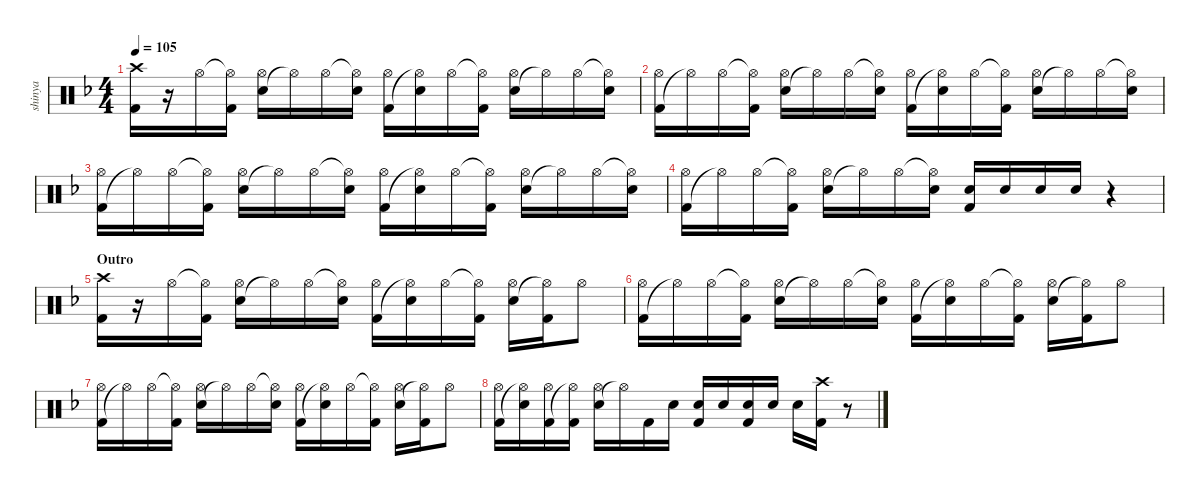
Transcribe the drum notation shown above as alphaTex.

\defaultSystemsLayout 4
\hideDynamics
\bracketExtendMode nobrackets
\otherSystemsTrackNameOrientation horizontal
\track ("Shinya" "shinya") {defaultSystemsLayout 4 instrument percussion}
\staff {score}
\articulation defaults
\ts (4 4)
\tempo 105
\clef neutral
\scale
1.06316
\ks dminor
("Kick (hit) 2"{acc forcenatural} "Crash high (hit)"{acc #}).16{dy fff} r.16 "Hi-Hat (open)"{acc #}.16 ("Hi-Hat (open)"{t acc #} "Kick (hit) 2"{acc forcenatural}).16 ("Snare (hit) 2"{acc forcenatural} "Hi-Hat (open)"{acc #}).16 "Hi-Hat (open)"{t acc #}.16 "Hi-Hat (open)"{acc #}.16 ("Hi-Hat (open)"{t acc #} "Snare (hit) 2"{acc forcenatural}).16 ("Kick (hit) 2"{acc forcenatural} "Hi-Hat (open)"{acc #}).16 ("Hi-Hat (open)"{t acc #} "Snare (hit) 2"{acc forcenatural}).16 "Hi-Hat (open)"{acc #}.16 ("Hi-Hat (open)"{t acc #} "Kick (hit) 2"{acc forcenatural}).16 ("Snare (hit) 2"{acc forcenatural} "Hi-Hat (open)"{acc #}).16 "Hi-Hat (open)"{t acc #}.16 "Hi-Hat (open)"{acc #}.16 ("Hi-Hat (open)"{t acc #} "Snare (hit) 2"{acc forcenatural}).16 |
\scale
0.973053 ("Kick (hit) 2"{acc forcenatural} "Hi-Hat (open)"{acc #}).16 "Hi-Hat (open)"{t acc #}.16 "Hi-Hat (open)"{acc #}.16 ("Hi-Hat (open)"{t acc #} "Kick (hit) 2"{acc forcenatural}).16 ("Snare (hit) 2"{acc forcenatural} "Hi-Hat (open)"{acc #}).16 "Hi-Hat (open)"{t acc #}.16 "Hi-Hat (open)"{acc #}.16 ("Hi-Hat (open)"{t acc #} "Snare (hit) 2"{acc forcenatural}).16 ("Kick (hit) 2"{acc forcenatural} "Hi-Hat (open)"{acc #}).16 ("Hi-Hat (open)"{t acc #} "Snare (hit) 2"{acc forcenatural}).16 "Hi-Hat (open)"{acc #}.16 ("Hi-Hat (open)"{t acc #} "Kick (hit) 2"{acc forcenatural}).16 ("Snare (hit) 2"{acc forcenatural} "Hi-Hat (open)"{acc #}).16 "Hi-Hat (open)"{t acc #}.16 "Hi-Hat (open)"{acc #}.16 ("Hi-Hat (open)"{t acc #} "Snare (hit) 2"{acc forcenatural}).16 |
\scale
0.973053 ("Kick (hit) 2"{acc forcenatural} "Hi-Hat (open)"{acc #}).16 "Hi-Hat (open)"{t acc #}.16 "Hi-Hat (open)"{acc #}.16 ("Hi-Hat (open)"{t acc #} "Kick (hit) 2"{acc forcenatural}).16 ("Snare (hit) 2"{acc forcenatural} "Hi-Hat (open)"{acc #}).16 "Hi-Hat (open)"{t acc #}.16 "Hi-Hat (open)"{acc #}.16 ("Hi-Hat (open)"{t acc #} "Snare (hit) 2"{acc forcenatural}).16 ("Kick (hit) 2"{acc forcenatural} "Hi-Hat (open)"{acc #}).16 ("Hi-Hat (open)"{t acc #} "Snare (hit) 2"{acc forcenatural}).16 "Hi-Hat (open)"{acc #}.16 ("Hi-Hat (open)"{t acc #} "Kick (hit) 2"{acc forcenatural}).16 ("Snare (hit) 2"{acc forcenatural} "Hi-Hat (open)"{acc #}).16 "Hi-Hat (open)"{t acc #}.16 "Hi-Hat (open)"{acc #}.16 ("Hi-Hat (open)"{t acc #} "Snare (hit) 2"{acc forcenatural}).16 |
\scale
0.990737 ("Kick (hit) 2"{acc forcenatural} "Hi-Hat (open)"{acc #}).16 "Hi-Hat (open)"{t acc #}.16 "Hi-Hat (open)"{acc #}.16 ("Hi-Hat (open)"{t acc #} "Kick (hit) 2"{acc forcenatural}).16 ("Snare (hit) 2"{acc forcenatural} "Hi-Hat (open)"{acc #}).16 "Hi-Hat (open)"{t acc #}.16 "Hi-Hat (open)"{acc #}.16 ("Hi-Hat (open)"{t acc #} "Snare (hit) 2"{acc forcenatural}).16 ("Kick (hit) 2"{acc forcenatural} "Snare (hit) 2"{acc forcenatural}).16 "Snare (hit) 2"{acc forcenatural}.16 "Snare (hit) 2"{acc forcenatural}.16 "Snare (hit) 2"{acc forcenatural}.16 r.4 |
\section ("" "Outro")
\scale
1.06047 ("Kick (hit) 2"{acc forcenatural} "Crash high (hit)"{acc #}).16 r.16 "Hi-Hat (open)"{acc #}.16 ("Hi-Hat (open)"{t acc #} "Kick (hit) 2"{acc forcenatural}).16 ("Snare (hit) 2"{acc forcenatural} "Hi-Hat (open)"{acc #}).16 "Hi-Hat (open)"{t acc #}.16 "Hi-Hat (open)"{acc #}.16 ("Hi-Hat (open)"{t acc #} "Snare (hit) 2"{acc forcenatural}).16 ("Kick (hit) 2"{acc forcenatural} "Hi-Hat (open)"{acc #}).16 ("Hi-Hat (open)"{t acc #} "Snare (hit) 2"{acc forcenatural}).16 "Hi-Hat (open)"{acc #}.16 ("Hi-Hat (open)"{t acc #} "Kick (hit) 2"{acc forcenatural}).16 ("Snare (hit) 2"{acc forcenatural} "Hi-Hat (open)"{acc #}).16 ("Hi-Hat (open)"{t acc #} "Kick (hit) 2"{acc forcenatural}).16 "Hi-Hat (open)"{acc #}.8 |
\scale
0.970369 ("Kick (hit) 2"{acc forcenatural} "Hi-Hat (open)"{acc #}).16 "Hi-Hat (open)"{t acc #}.16 "Hi-Hat (open)"{acc #}.16 ("Hi-Hat (open)"{t acc #} "Kick (hit) 2"{acc forcenatural}).16 ("Snare (hit) 2"{acc forcenatural} "Hi-Hat (open)"{acc #}).16 "Hi-Hat (open)"{t acc #}.16 "Hi-Hat (open)"{acc #}.16 ("Hi-Hat (open)"{t acc #} "Snare (hit) 2"{acc forcenatural}).16 ("Kick (hit) 2"{acc forcenatural} "Hi-Hat (open)"{acc #}).16 ("Hi-Hat (open)"{t acc #} "Snare (hit) 2"{acc forcenatural}).16 "Hi-Hat (open)"{acc #}.16 ("Hi-Hat (open)"{t acc #} "Kick (hit) 2"{acc forcenatural}).16 ("Snare (hit) 2"{acc forcenatural} "Hi-Hat (open)"{acc #}).16 ("Hi-Hat (open)"{t acc #} "Kick (hit) 2"{acc forcenatural}).16 "Hi-Hat (open)"{acc #}.8 |
\scale
0.970369 ("Kick (hit) 2"{acc forcenatural} "Hi-Hat (open)"{acc #}).16 "Hi-Hat (open)"{t acc #}.16 "Hi-Hat (open)"{acc #}.16 ("Hi-Hat (open)"{t acc #} "Kick (hit) 2"{acc forcenatural}).16 ("Snare (hit) 2"{acc forcenatural} "Hi-Hat (open)"{acc #}).16 "Hi-Hat (open)"{t acc #}.16 "Hi-Hat (open)"{acc #}.16 ("Hi-Hat (open)"{t acc #} "Snare (hit) 2"{acc forcenatural}).16 ("Kick (hit) 2"{acc forcenatural} "Hi-Hat (open)"{acc #}).16 ("Hi-Hat (open)"{t acc #} "Snare (hit) 2"{acc forcenatural}).16 "Hi-Hat (open)"{acc #}.16 ("Hi-Hat (open)"{t acc #} "Kick (hit) 2"{acc forcenatural}).16 ("Snare (hit) 2"{acc forcenatural} "Hi-Hat (open)"{acc #}).16 ("Hi-Hat (open)"{t acc #} "Kick (hit) 2"{acc forcenatural}).16 "Hi-Hat (open)"{acc #}.8 |
\scale
0.998789 ("Kick (hit) 2"{acc forcenatural} "Hi-Hat (open)"{acc #}).16 ("Hi-Hat (open)"{t acc #} "Snare (hit) 2"{acc forcenatural}).16 ("Kick (hit) 2"{acc forcenatural} "Hi-Hat (open)"{acc #}).16 ("Hi-Hat (open)"{t acc #} "Kick (hit) 2"{acc forcenatural}).16 ("Snare (hit) 2"{acc forcenatural} "Hi-Hat (open)"{acc #}).16 "Hi-Hat (open)"{t acc #}.16 "Kick (hit) 2"{acc forcenatural}.16 "Snare (hit) 2"{acc forcenatural}.16 ("Kick (hit) 2"{acc forcenatural} "Snare (hit) 2"{acc forcenatural}).16 "Snare (hit) 2"{acc forcenatural}.16 ("Kick (hit) 2"{acc forcenatural} "Snare (hit) 2"{acc forcenatural}).16 "Snare (hit) 2"{acc forcenatural}.16 "Snare (hit) 2"{acc forcenatural}.16 ("Kick (hit) 2"{acc forcenatural} "Crash high (hit)"{acc #}).16 r.8
